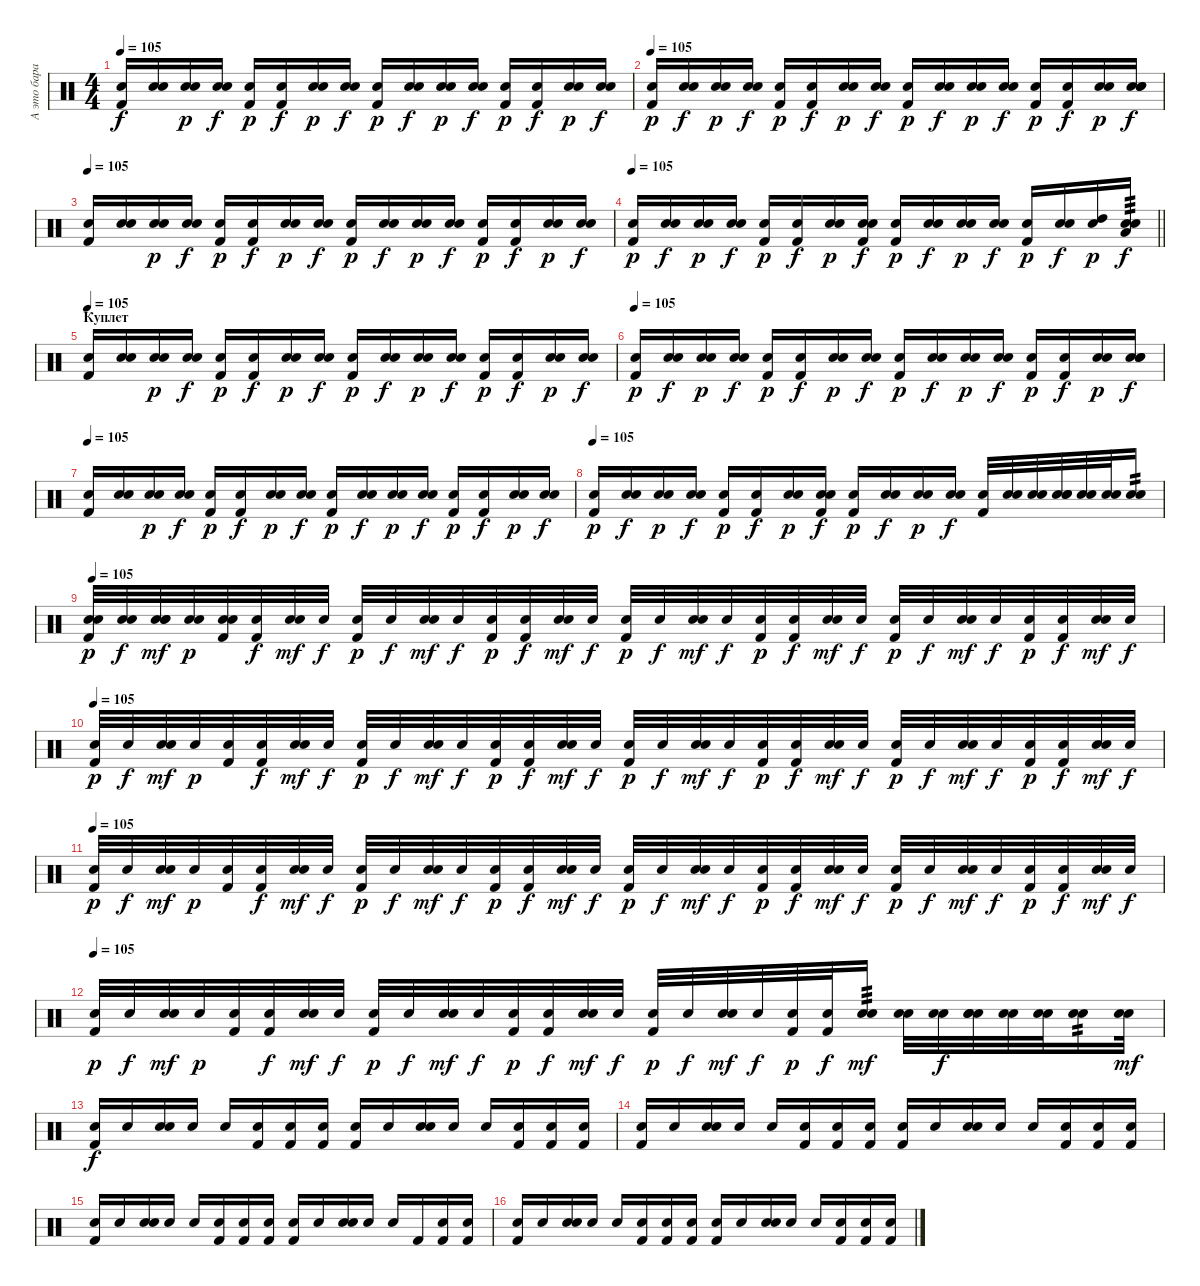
\track ("А это барабаны" "А это бара") {instrument percussion}
\staff {score}
\articulation defaults
\ts (4 4)
\tempo 115
\tempo 105
\clef neutral
\ks c
("Snare (hit)" "Kick (hit) 2").16{dy f} ("Snare (hit)" "Snare (hit)").16 ("Snare (hit)" "Snare (hit) 2").16{dy p} ("Snare (hit)" "Snare (hit)").16{dy f} ("Snare (hit)" "Kick (hit) 2").16{dy p} ("Snare (hit)" "Kick (hit) 2").16{dy f} ("Snare (hit)" "Snare (hit) 2").16{dy p} ("Snare (hit)" "Snare (hit)").16{dy f} ("Snare (hit)" "Kick (hit) 2").16{dy p} ("Snare (hit)" "Snare (hit)").16{dy f} ("Snare (hit)" "Snare (hit) 2").16{dy p} ("Snare (hit)" "Snare (hit)").16{dy f} ("Snare (hit)" "Kick (hit) 2").16{dy p} ("Snare (hit)" "Kick (hit) 2").16{dy f} ("Snare (hit)" "Snare (hit) 2").16{dy p} ("Snare (hit)" "Snare (hit)").16{dy f} |
\tempo 105
("Snare (hit)" "Kick (hit) 2").16{dy p} ("Snare (hit)" "Snare (hit)").16{dy f} ("Snare (hit)" "Snare (hit) 2").16{dy p} ("Snare (hit)" "Snare (hit)").16{dy f} ("Snare (hit)" "Kick (hit) 2").16{dy p} ("Snare (hit)" "Kick (hit) 2").16{dy f} ("Snare (hit)" "Snare (hit) 2").16{dy p} ("Snare (hit)" "Snare (hit)").16{dy f} ("Snare (hit)" "Kick (hit) 2").16{dy p} ("Snare (hit)" "Snare (hit)").16{dy f} ("Snare (hit)" "Snare (hit) 2").16{dy p} ("Snare (hit)" "Snare (hit)").16{dy f} ("Snare (hit)" "Kick (hit) 2").16{dy p} ("Snare (hit)" "Kick (hit) 2").16{dy f} ("Snare (hit)" "Snare (hit) 2").16{dy p} ("Snare (hit)" "Snare (hit)" "Snare (hit) 2").16{dy f} |
\tempo 105
("Snare (hit)" "Kick (hit) 2").16 ("Snare (hit)" "Snare (hit)").16 ("Snare (hit)" "Snare (hit) 2").16{dy p} ("Snare (hit)" "Snare (hit)").16{dy f} ("Snare (hit)" "Kick (hit) 2").16{dy p} ("Snare (hit)" "Kick (hit) 2").16{dy f} ("Snare (hit)" "Snare (hit) 2").16{dy p} ("Snare (hit)" "Snare (hit)").16{dy f} ("Snare (hit)" "Kick (hit) 2").16{dy p} ("Snare (hit)" "Snare (hit)").16{dy f} ("Snare (hit)" "Snare (hit) 2").16{dy p} ("Snare (hit)" "Snare (hit)").16{dy f} ("Snare (hit)" "Kick (hit) 2").16{dy p} ("Snare (hit)" "Kick (hit) 2").16{dy f} ("Snare (hit)" "Snare (hit) 2").16{dy p} ("Snare (hit)" "Snare (hit)").16{dy f} |
\tempo 105
\barLineRight lightlight
("Snare (hit)" "Kick (hit) 2").16{dy p} ("Snare (hit)" "Snare (hit)").16{dy f} ("Snare (hit)" "Snare (hit) 2").16{dy p} ("Snare (hit)" "Snare (hit)").16{dy f} ("Snare (hit)" "Kick (hit) 2").16{dy p} ("Snare (hit)" "Kick (hit) 2").16{dy f} ("Snare (hit)" "Snare (hit) 2").16{dy p} ("Snare (hit)" "Snare (hit)" "Kick (hit) 2").16{dy f} ("Snare (hit)" "Kick (hit) 2").16{dy p} ("Snare (hit)" "Snare (hit)").16{dy f} ("Snare (hit)" "Snare (hit) 2").16{dy p} ("Snare (hit)" "Snare (hit)").16{dy f} ("Snare (hit)" "Kick (hit) 2").16{dy p} ("Snare (hit)" "Snare (hit) 2").16{dy f} ("Snare (hit)" "High Tom (hit)").16{dy p} ("Snare (hit)" "Snare (hit)" "Low Tom (hit)").16{tp 3 dy f} |
\section ("" "Куплет")
\tempo 105
("Snare (hit)" "Kick (hit) 2").16 ("Snare (hit)" "Snare (hit)").16 ("Snare (hit)" "Snare (hit) 2").16{dy p} ("Snare (hit)" "Snare (hit)").16{dy f} ("Snare (hit)" "Kick (hit) 2").16{dy p} ("Snare (hit)" "Kick (hit) 2").16{dy f} ("Snare (hit)" "Snare (hit) 2").16{dy p} ("Snare (hit)" "Snare (hit)").16{dy f} ("Snare (hit)" "Kick (hit) 2").16{dy p} ("Snare (hit)" "Snare (hit)").16{dy f} ("Snare (hit)" "Snare (hit) 2").16{dy p} ("Snare (hit)" "Snare (hit)").16{dy f} ("Snare (hit)" "Kick (hit) 2").16{dy p} ("Snare (hit)" "Kick (hit) 2").16{dy f} ("Snare (hit)" "Snare (hit) 2").16{dy p} ("Snare (hit)" "Snare (hit)").16{dy f} |
\tempo 105
("Snare (hit)" "Kick (hit) 2").16{dy p} ("Snare (hit)" "Snare (hit)").16{dy f} ("Snare (hit)" "Snare (hit) 2").16{dy p} ("Snare (hit)" "Snare (hit)").16{dy f} ("Snare (hit)" "Kick (hit) 2").16{dy p} ("Snare (hit)" "Kick (hit) 2").16{dy f} ("Snare (hit)" "Snare (hit) 2").16{dy p} ("Snare (hit)" "Snare (hit)").16{dy f} ("Snare (hit)" "Kick (hit) 2").16{dy p} ("Snare (hit)" "Snare (hit)").16{dy f} ("Snare (hit)" "Snare (hit) 2").16{dy p} ("Snare (hit)" "Snare (hit)").16{dy f} ("Snare (hit)" "Kick (hit) 2").16{dy p} ("Snare (hit)" "Kick (hit) 2").16{dy f} ("Snare (hit)" "Snare (hit) 2").16{dy p} ("Snare (hit)" "Snare (hit)" "Snare (hit) 2").16{dy f} |
\tempo 105
("Snare (hit)" "Kick (hit) 2").16 ("Snare (hit)" "Snare (hit)").16 ("Snare (hit)" "Snare (hit) 2").16{dy p} ("Snare (hit)" "Snare (hit)").16{dy f} ("Snare (hit)" "Kick (hit) 2").16{dy p} ("Snare (hit)" "Kick (hit) 2").16{dy f} ("Snare (hit)" "Snare (hit) 2").16{dy p} ("Snare (hit)" "Snare (hit)").16{dy f} ("Snare (hit)" "Kick (hit) 2").16{dy p} ("Snare (hit)" "Snare (hit)").16{dy f} ("Snare (hit)" "Snare (hit) 2").16{dy p} ("Snare (hit)" "Snare (hit)").16{dy f} ("Snare (hit)" "Kick (hit) 2").16{dy p} ("Snare (hit)" "Kick (hit) 2").16{dy f} ("Snare (hit)" "Snare (hit) 2").16{dy p} ("Snare (hit)" "Snare (hit)").16{dy f} |
\tempo 105
("Snare (hit)" "Kick (hit) 2").16{dy p} ("Snare (hit)" "Snare (hit)").16{dy f} ("Snare (hit)" "Snare (hit) 2").16{dy p} ("Snare (hit)" "Snare (hit)").16{dy f} ("Snare (hit)" "Kick (hit) 2").16{dy p} ("Snare (hit)" "Kick (hit) 2").16{dy f} ("Snare (hit)" "Snare (hit) 2").16{dy p} ("Snare (hit)" "Snare (hit)" "Kick (hit) 2").16{dy f} ("Snare (hit)" "Kick (hit) 2").16{dy p} ("Snare (hit)" "Snare (hit)").16{dy f} ("Snare (hit)" "Snare (hit) 2").16{dy p} ("Snare (hit)" "Snare (hit)").16{dy f} ("Snare (hit)" "Kick (hit) 2").32 ("Snare (hit)" "Snare (hit)").32 ("Snare (hit)" "Snare (hit) 2").32 ("Snare (hit)" "Snare (hit) 2" "Snare (hit)").32 ("Snare (hit)" "Snare (hit) 2").32 ("Snare (hit)" "Snare (hit)").32 ("Snare (hit)" "Snare (hit) 2").16{tp 2} |
\tempo 105
("Snare (hit)" "Snare (hit)" "Kick (hit) 2").32{dy p} ("Snare (hit)" "Snare (hit)").32{dy f} ("Snare (hit)" "Snare (hit)" "Snare (hit) 2").32{dy mf} ("Snare (hit)" "Snare (hit)").32{dy p} ("Snare (hit)" "Snare (hit)" "Kick (hit) 2").32 ("Snare (hit)" "Kick (hit) 2").32{dy f} ("Snare (hit)" "Snare (hit) 2").32{dy mf} "Snare (hit)".32{dy f} ("Snare (hit)" "Kick (hit) 2").32{dy p} "Snare (hit)".32{dy f} ("Snare (hit)" "Snare (hit) 2").32{dy mf} "Snare (hit)".32{dy f} ("Snare (hit)" "Kick (hit) 2").32{dy p} ("Snare (hit)" "Kick (hit) 2").32{dy f} ("Snare (hit)" "Snare (hit) 2").32{dy mf} "Snare (hit)".32{dy f} ("Snare (hit)" "Kick (hit) 2").32{dy p} "Snare (hit)".32{dy f} ("Snare (hit)" "Snare (hit) 2").32{dy mf} "Snare (hit)".32{dy f} ("Snare (hit)" "Kick (hit) 2").32{dy p} ("Snare (hit)" "Kick (hit) 2").32{dy f} ("Snare (hit)" "Snare (hit) 2").32{dy mf} "Snare (hit)".32{dy f} ("Snare (hit)" "Kick (hit) 2").32{dy p} "Snare (hit)".32{dy f} ("Snare (hit)" "Snare (hit) 2").32{dy mf} "Snare (hit)".32{dy f} ("Snare (hit)" "Kick (hit) 2").32{dy p} ("Snare (hit)" "Kick (hit) 2").32{dy f} ("Snare (hit)" "Snare (hit) 2").32{dy mf} "Snare (hit)".32{dy f} |
\tempo 105
("Snare (hit)" "Kick (hit) 2").32{dy p} "Snare (hit)".32{dy f} ("Snare (hit)" "Snare (hit) 2").32{dy mf} "Snare (hit)".32{dy p} ("Snare (hit)" "Kick (hit) 2").32 ("Snare (hit)" "Kick (hit) 2").32{dy f} ("Snare (hit)" "Snare (hit) 2").32{dy mf} "Snare (hit)".32{dy f} ("Snare (hit)" "Kick (hit) 2").32{dy p} "Snare (hit)".32{dy f} ("Snare (hit)" "Snare (hit) 2").32{dy mf} "Snare (hit)".32{dy f} ("Snare (hit)" "Kick (hit) 2").32{dy p} ("Snare (hit)" "Kick (hit) 2").32{dy f} ("Snare (hit)" "Snare (hit) 2").32{dy mf} "Snare (hit)".32{dy f} ("Snare (hit)" "Kick (hit) 2").32{dy p} "Snare (hit)".32{dy f} ("Snare (hit)" "Snare (hit) 2").32{dy mf} "Snare (hit)".32{dy f} ("Snare (hit)" "Kick (hit) 2").32{dy p} ("Snare (hit)" "Kick (hit) 2").32{dy f} ("Snare (hit)" "Snare (hit) 2").32{dy mf} "Snare (hit)".32{dy f} ("Snare (hit)" "Kick (hit) 2").32{dy p} "Snare (hit)".32{dy f} ("Snare (hit)" "Snare (hit) 2").32{dy mf} "Snare (hit)".32{dy f} ("Snare (hit)" "Kick (hit) 2").32{dy p} ("Snare (hit)" "Kick (hit) 2").32{dy f} ("Snare (hit)" "Snare (hit) 2").32{dy mf} "Snare (hit)".32{dy f} |
\tempo 105
("Snare (hit)" "Kick (hit) 2").32{dy p} "Snare (hit)".32{dy f} ("Snare (hit)" "Snare (hit) 2").32{dy mf} "Snare (hit)".32{dy p} ("Snare (hit)" "Kick (hit) 2").32 ("Snare (hit)" "Kick (hit) 2").32{dy f} ("Snare (hit)" "Snare (hit) 2").32{dy mf} "Snare (hit)".32{dy f} ("Snare (hit)" "Kick (hit) 2").32{dy p} "Snare (hit)".32{dy f} ("Snare (hit)" "Snare (hit) 2").32{dy mf} "Snare (hit)".32{dy f} ("Snare (hit)" "Kick (hit) 2").32{dy p} ("Snare (hit)" "Kick (hit) 2").32{dy f} ("Snare (hit)" "Snare (hit) 2").32{dy mf} "Snare (hit)".32{dy f} ("Snare (hit)" "Kick (hit) 2").32{dy p} "Snare (hit)".32{dy f} ("Snare (hit)" "Snare (hit) 2").32{dy mf} "Snare (hit)".32{dy f} ("Snare (hit)" "Kick (hit) 2").32{dy p} ("Snare (hit)" "Kick (hit) 2").32{dy f} ("Snare (hit)" "Snare (hit) 2").32{dy mf} "Snare (hit)".32{dy f} ("Snare (hit)" "Kick (hit) 2").32{dy p} "Snare (hit)".32{dy f} ("Snare (hit)" "Snare (hit) 2").32{dy mf} "Snare (hit)".32{dy f} ("Snare (hit)" "Kick (hit) 2").32{dy p} ("Snare (hit)" "Kick (hit) 2").32{dy f} ("Snare (hit)" "Snare (hit) 2").32{dy mf} "Snare (hit)".32{dy f} |
\tempo 105
("Snare (hit)" "Kick (hit) 2").32{dy p} "Snare (hit)".32{dy f} ("Snare (hit)" "Snare (hit) 2").32{dy mf} "Snare (hit)".32{dy p} ("Snare (hit)" "Kick (hit) 2").32 ("Snare (hit)" "Kick (hit) 2").32{dy f} ("Snare (hit)" "Snare (hit) 2").32{dy mf} "Snare (hit)".32{dy f} ("Snare (hit)" "Kick (hit) 2").32{dy p} "Snare (hit)".32{dy f} ("Snare (hit)" "Snare (hit) 2").32{dy mf} "Snare (hit)".32{dy f} ("Snare (hit)" "Kick (hit) 2").32{dy p} ("Snare (hit)" "Kick (hit) 2").32{dy f} ("Snare (hit)" "Snare (hit) 2").32{dy mf} "Snare (hit)".32{dy f} ("Snare (hit)" "Kick (hit) 2").32{dy p} "Snare (hit)".32{dy f} ("Snare (hit)" "Snare (hit) 2").32{dy mf} "Snare (hit)".32{dy f} ("Snare (hit)" "Kick (hit) 2").32{dy p} ("Snare (hit)" "Kick (hit) 2").32{dy f} ("Snare (hit)" "Snare (hit) 2").16{tp 3 dy mf} ("Snare (hit)" "Snare (hit)").32 ("Snare (hit)" "Snare (hit) 2").32{dy f} ("Snare (hit)" "Snare (hit) 2" "Snare (hit)").32 ("Snare (hit)" "Snare (hit) 2").32 ("Snare (hit)" "Snare (hit)").32 ("Snare (hit)" "Snare (hit) 2").16{tp 2} ("Snare (hit)" "Snare (hit)").32{dy mf} |
("Snare (hit)" "Kick (hit) 2").16{dy f} "Snare (hit)".16 ("Snare (hit)" "Snare (hit) 2").16 "Snare (hit)".16 "Snare (hit)".16 ("Snare (hit)" "Kick (hit) 2").16 ("Snare (hit)" "Kick (hit) 2").16 ("Snare (hit)" "Kick (hit) 2").16 ("Snare (hit)" "Kick (hit) 2").16 "Snare (hit)".16 ("Snare (hit)" "Snare (hit) 2").16 "Snare (hit)".16 "Snare (hit)".16 ("Snare (hit)" "Kick (hit) 2").16 ("Snare (hit)" "Kick (hit) 2").16 ("Snare (hit)" "Kick (hit) 2").16 |
("Snare (hit)" "Kick (hit) 2").16 "Snare (hit)".16 ("Snare (hit)" "Snare (hit) 2").16 "Snare (hit)".16 "Snare (hit)".16 ("Snare (hit)" "Kick (hit) 2").16 ("Snare (hit)" "Kick (hit) 2").16 ("Snare (hit)" "Kick (hit) 2").16 ("Snare (hit)" "Kick (hit) 2").16 "Snare (hit)".16 ("Snare (hit)" "Snare (hit) 2").16 "Snare (hit)".16 "Snare (hit)".16 ("Snare (hit)" "Kick (hit) 2").16 ("Snare (hit)" "Kick (hit) 2").16 ("Snare (hit)" "Kick (hit) 2").16 |
("Snare (hit)" "Kick (hit) 2").16 "Snare (hit)".16 ("Snare (hit)" "Snare (hit) 2").16 "Snare (hit)".16 "Snare (hit)".16 ("Snare (hit)" "Kick (hit) 2").16 ("Snare (hit)" "Kick (hit) 2").16 ("Snare (hit)" "Kick (hit) 2").16 ("Snare (hit)" "Kick (hit) 2").16 "Snare (hit)".16 ("Snare (hit)" "Snare (hit) 2").16 "Snare (hit)".16 "Snare (hit)".16 "Kick (hit) 2".16 ("Snare (hit)" "Kick (hit) 2").16 ("Snare (hit)" "Kick (hit) 2").16 |
("Snare (hit)" "Kick (hit) 2").16 "Snare (hit)".16 ("Snare (hit)" "Snare (hit) 2").16 "Snare (hit)".16 "Snare (hit)".16 ("Snare (hit)" "Kick (hit) 2").16 ("Snare (hit)" "Kick (hit) 2").16 ("Snare (hit)" "Kick (hit) 2").16 ("Snare (hit)" "Kick (hit) 2").16 "Snare (hit)".16 ("Snare (hit)" "Snare (hit) 2").16 "Snare (hit)".16 "Snare (hit)".16 ("Snare (hit)" "Kick (hit) 2").16 ("Snare (hit)" "Kick (hit) 2").16 ("Snare (hit)" "Kick (hit) 2").16
